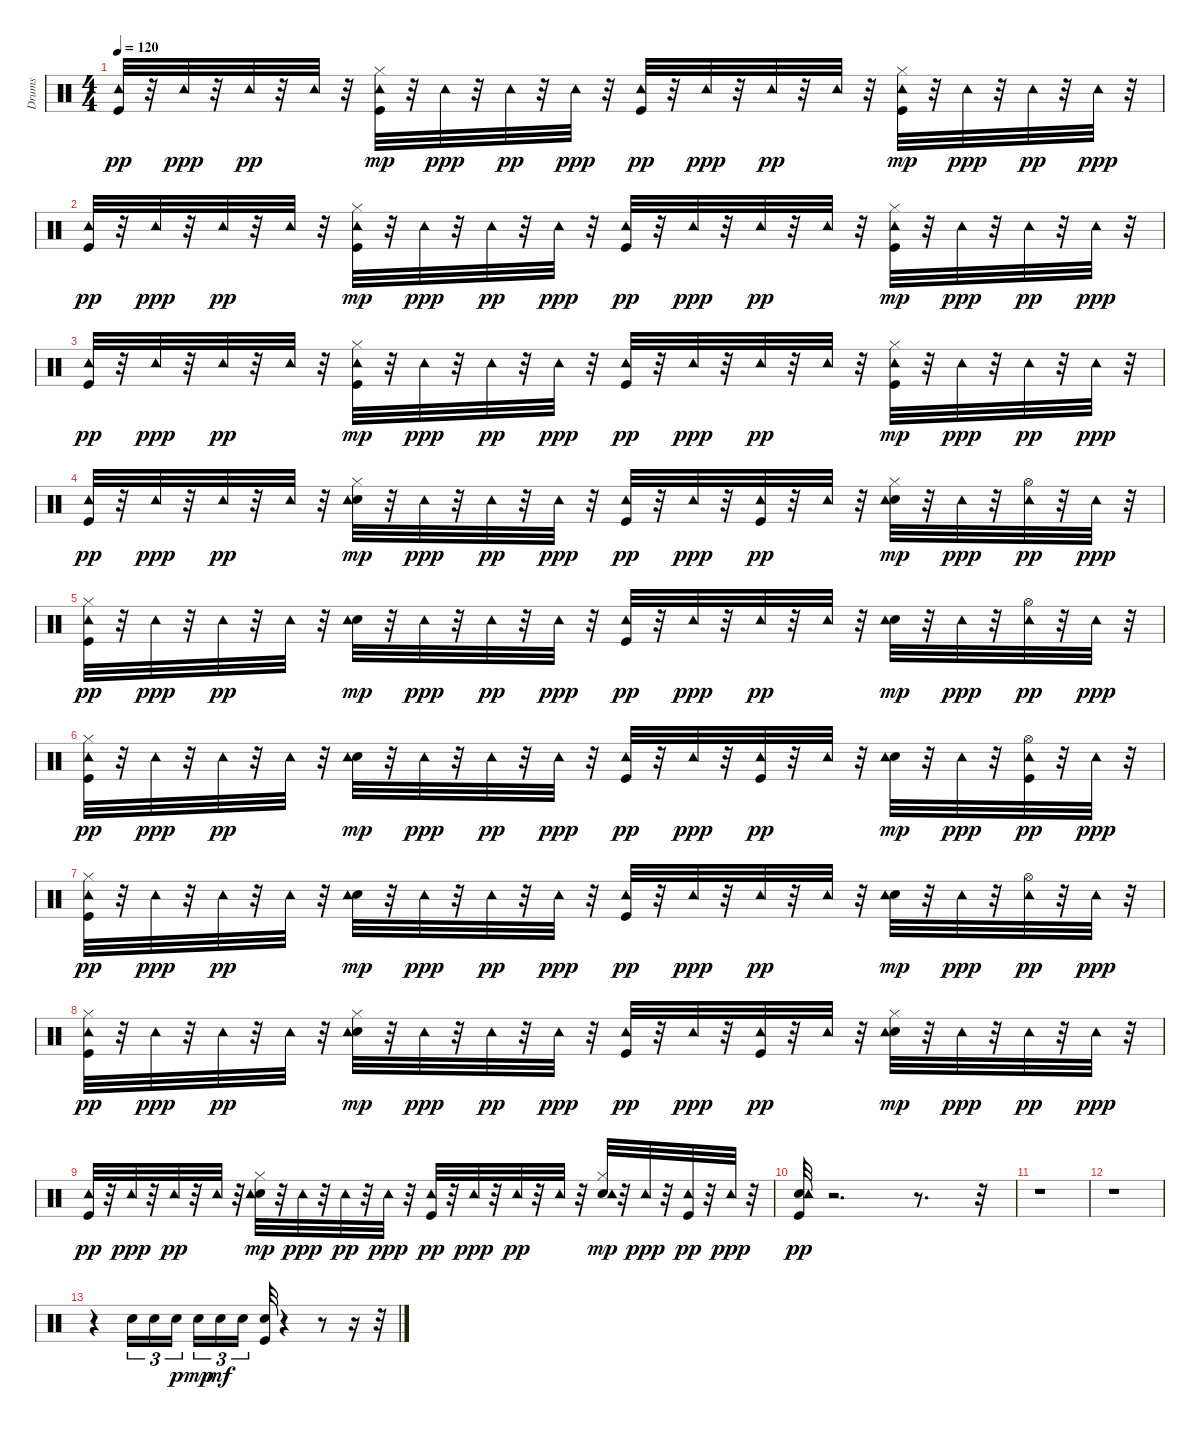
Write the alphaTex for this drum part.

\track ("Drums" "Drums") {instrument percussion}
\staff {score}
\articulation defaults
\ts (4 4)
\tempo 120
\clef neutral
\ks c
("Kick (hit)" "Tambourine (hit)").32{dy pp} r.32 "Tambourine (hit)".32{dy ppp} r.32 "Tambourine (hit)".32{dy pp} r.32 "Tambourine (hit)".32 r.32 ("Kick (hit)" "Hi-Hat (closed)" "Tambourine (hit)").32{dy mp} r.32 "Tambourine (hit)".32{dy ppp} r.32 "Tambourine (hit)".32{dy pp} r.32 "Tambourine (hit)".32{dy ppp} r.32 ("Kick (hit)" "Tambourine (hit)").32{dy pp} r.32 "Tambourine (hit)".32{dy ppp} r.32 "Tambourine (hit)".32{dy pp} r.32 "Tambourine (hit)".32 r.32 ("Kick (hit)" "Hi-Hat (closed)" "Tambourine (hit)").32{dy mp} r.32 "Tambourine (hit)".32{dy ppp} r.32 "Tambourine (hit)".32{dy pp} r.32 "Tambourine (hit)".32{dy ppp} r.32 |
("Kick (hit)" "Tambourine (hit)").32{dy pp} r.32 "Tambourine (hit)".32{dy ppp} r.32 "Tambourine (hit)".32{dy pp} r.32 "Tambourine (hit)".32 r.32 ("Kick (hit)" "Hi-Hat (closed)" "Tambourine (hit)").32{dy mp} r.32 "Tambourine (hit)".32{dy ppp} r.32 "Tambourine (hit)".32{dy pp} r.32 "Tambourine (hit)".32{dy ppp} r.32 ("Kick (hit)" "Tambourine (hit)").32{dy pp} r.32 "Tambourine (hit)".32{dy ppp} r.32 "Tambourine (hit)".32{dy pp} r.32 "Tambourine (hit)".32 r.32 ("Kick (hit)" "Hi-Hat (closed)" "Tambourine (hit)").32{dy mp} r.32 "Tambourine (hit)".32{dy ppp} r.32 "Tambourine (hit)".32{dy pp} r.32 "Tambourine (hit)".32{dy ppp} r.32 |
("Kick (hit)" "Tambourine (hit)").32{dy pp} r.32 "Tambourine (hit)".32{dy ppp} r.32 "Tambourine (hit)".32{dy pp} r.32 "Tambourine (hit)".32 r.32 ("Kick (hit)" "Hi-Hat (closed)" "Tambourine (hit)").32{dy mp} r.32 "Tambourine (hit)".32{dy ppp} r.32 "Tambourine (hit)".32{dy pp} r.32 "Tambourine (hit)".32{dy ppp} r.32 ("Kick (hit)" "Tambourine (hit)").32{dy pp} r.32 "Tambourine (hit)".32{dy ppp} r.32 "Tambourine (hit)".32{dy pp} r.32 "Tambourine (hit)".32 r.32 ("Kick (hit)" "Hi-Hat (closed)" "Tambourine (hit)").32{dy mp} r.32 "Tambourine (hit)".32{dy ppp} r.32 "Tambourine (hit)".32{dy pp} r.32 "Tambourine (hit)".32{dy ppp} r.32 |
("Kick (hit)" "Tambourine (hit)").32{dy pp} r.32 "Tambourine (hit)".32{dy ppp} r.32 "Tambourine (hit)".32{dy pp} r.32 "Tambourine (hit)".32 r.32 ("Electric Snare (hit)" "Hi-Hat (closed)" "Tambourine (hit)").32{dy mp} r.32 "Tambourine (hit)".32{dy ppp} r.32 "Tambourine (hit)".32{dy pp} r.32 "Tambourine (hit)".32{dy ppp} r.32 ("Kick (hit)" "Tambourine (hit)").32{dy pp} r.32 "Tambourine (hit)".32{dy ppp} r.32 ("Kick (hit)" "Tambourine (hit)").32{dy pp} r.32 "Tambourine (hit)".32 r.32 ("Electric Snare (hit)" "Hi-Hat (closed)" "Tambourine (hit)").32{dy mp} r.32 "Tambourine (hit)".32{dy ppp} r.32 ("Hi-Hat (open)" "Tambourine (hit)").32{dy pp} r.32 "Tambourine (hit)".32{dy ppp} r.32 |
("Kick (hit)" "Hi-Hat (closed)" "Tambourine (hit)").32{dy pp} r.32 "Tambourine (hit)".32{dy ppp} r.32 "Tambourine (hit)".32{dy pp} r.32 "Tambourine (hit)".32 r.32 ("Electric Snare (hit)" "Tambourine (hit)").32{dy mp} r.32 "Tambourine (hit)".32{dy ppp} r.32 "Tambourine (hit)".32{dy pp} r.32 "Tambourine (hit)".32{dy ppp} r.32 ("Kick (hit)" "Tambourine (hit)").32{dy pp} r.32 "Tambourine (hit)".32{dy ppp} r.32 "Tambourine (hit)".32{dy pp} r.32 "Tambourine (hit)".32 r.32 ("Electric Snare (hit)" "Tambourine (hit)").32{dy mp} r.32 "Tambourine (hit)".32{dy ppp} r.32 ("Hi-Hat (open)" "Tambourine (hit)").32{dy pp} r.32 "Tambourine (hit)".32{dy ppp} r.32 |
("Kick (hit)" "Hi-Hat (closed)" "Tambourine (hit)").32{dy pp} r.32 "Tambourine (hit)".32{dy ppp} r.32 "Tambourine (hit)".32{dy pp} r.32 "Tambourine (hit)".32 r.32 ("Electric Snare (hit)" "Tambourine (hit)").32{dy mp} r.32 "Tambourine (hit)".32{dy ppp} r.32 "Tambourine (hit)".32{dy pp} r.32 "Tambourine (hit)".32{dy ppp} r.32 ("Kick (hit)" "Tambourine (hit)").32{dy pp} r.32 "Tambourine (hit)".32{dy ppp} r.32 ("Kick (hit)" "Tambourine (hit)").32{dy pp} r.32 "Tambourine (hit)".32 r.32 ("Electric Snare (hit)" "Tambourine (hit)").32{dy mp} r.32 "Tambourine (hit)".32{dy ppp} r.32 ("Kick (hit)" "Hi-Hat (open)" "Tambourine (hit)").32{dy pp} r.32 "Tambourine (hit)".32{dy ppp} r.32 |
("Kick (hit)" "Hi-Hat (closed)" "Tambourine (hit)").32{dy pp} r.32 "Tambourine (hit)".32{dy ppp} r.32 "Tambourine (hit)".32{dy pp} r.32 "Tambourine (hit)".32 r.32 ("Electric Snare (hit)" "Tambourine (hit)").32{dy mp} r.32 "Tambourine (hit)".32{dy ppp} r.32 "Tambourine (hit)".32{dy pp} r.32 "Tambourine (hit)".32{dy ppp} r.32 ("Kick (hit)" "Tambourine (hit)").32{dy pp} r.32 "Tambourine (hit)".32{dy ppp} r.32 "Tambourine (hit)".32{dy pp} r.32 "Tambourine (hit)".32 r.32 ("Electric Snare (hit)" "Tambourine (hit)").32{dy mp} r.32 "Tambourine (hit)".32{dy ppp} r.32 ("Hi-Hat (open)" "Tambourine (hit)").32{dy pp} r.32 "Tambourine (hit)".32{dy ppp} r.32 |
("Kick (hit)" "Hi-Hat (closed)" "Tambourine (hit)").32{dy pp} r.32 "Tambourine (hit)".32{dy ppp} r.32 "Tambourine (hit)".32{dy pp} r.32 "Tambourine (hit)".32 r.32 ("Electric Snare (hit)" "Hi-Hat (closed)" "Tambourine (hit)").32{dy mp} r.32 "Tambourine (hit)".32{dy ppp} r.32 "Tambourine (hit)".32{dy pp} r.32 "Tambourine (hit)".32{dy ppp} r.32 ("Kick (hit)" "Tambourine (hit)").32{dy pp} r.32 "Tambourine (hit)".32{dy ppp} r.32 ("Kick (hit)" "Tambourine (hit)").32{dy pp} r.32 "Tambourine (hit)".32 r.32 ("Electric Snare (hit)" "Hi-Hat (closed)" "Tambourine (hit)").32{dy mp} r.32 "Tambourine (hit)".32{dy ppp} r.32 "Tambourine (hit)".32{dy pp} r.32 "Tambourine (hit)".32{dy ppp} r.32 |
("Kick (hit)" "Tambourine (hit)").32{dy pp} r.32 "Tambourine (hit)".32{dy ppp} r.32 "Tambourine (hit)".32{dy pp} r.32 "Tambourine (hit)".32 r.32 ("Electric Snare (hit)" "Hi-Hat (closed)" "Tambourine (hit)").32{dy mp} r.32 "Tambourine (hit)".32{dy ppp} r.32 "Tambourine (hit)".32{dy pp} r.32 "Tambourine (hit)".32{dy ppp} r.32 ("Kick (hit)" "Tambourine (hit)").32{dy pp} r.32 "Tambourine (hit)".32{dy ppp} r.32 "Tambourine (hit)".32{dy pp} r.32 "Tambourine (hit)".32 r.32 ("Electric Snare (hit)" "Hi-Hat (closed)" "Tambourine (hit)").32{dy mp} r.32 "Tambourine (hit)".32{dy ppp} r.32 ("Kick (hit)" "Tambourine (hit)").32{dy pp} r.32 "Tambourine (hit)".32{dy ppp} r.32 |
("Kick (hit)" "Electric Snare (hit)" "Tambourine (hit)").32{dy pp} r.2{d} r.8{d} r.32 |
r.1 |
r.1 |
r.4 "Electric Snare (hit)".16{tu (3 2)} "Electric Snare (hit)".16{tu (3 2)} "Electric Snare (hit)".16{tu (3 2) dy p} "Electric Snare (hit)".16{tu (3 2) dy mp} "Electric Snare (hit)".16{tu (3 2) dy mf} "Electric Snare (hit)".16{tu (3 2)} ("Kick (hit)" "Electric Snare (hit)").32 r.4 r.8 r.16 r.32
